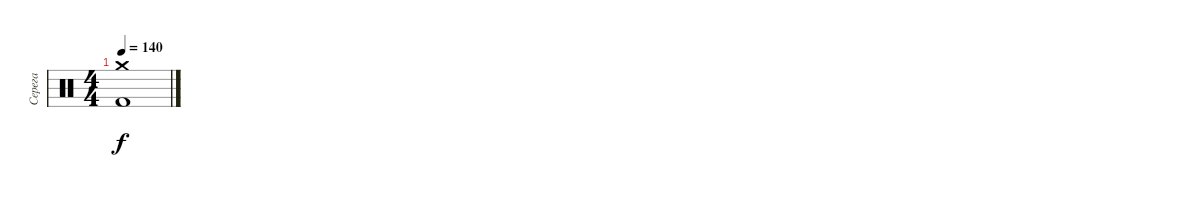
\track ("Серега" "Серега") {instrument percussion}
\staff {score}
\articulation defaults
\ts (4 4)
\tempo 140
\clef neutral
\ks c
("Crash medium (hit)" "Kick (hit) 2").1{dy f}
